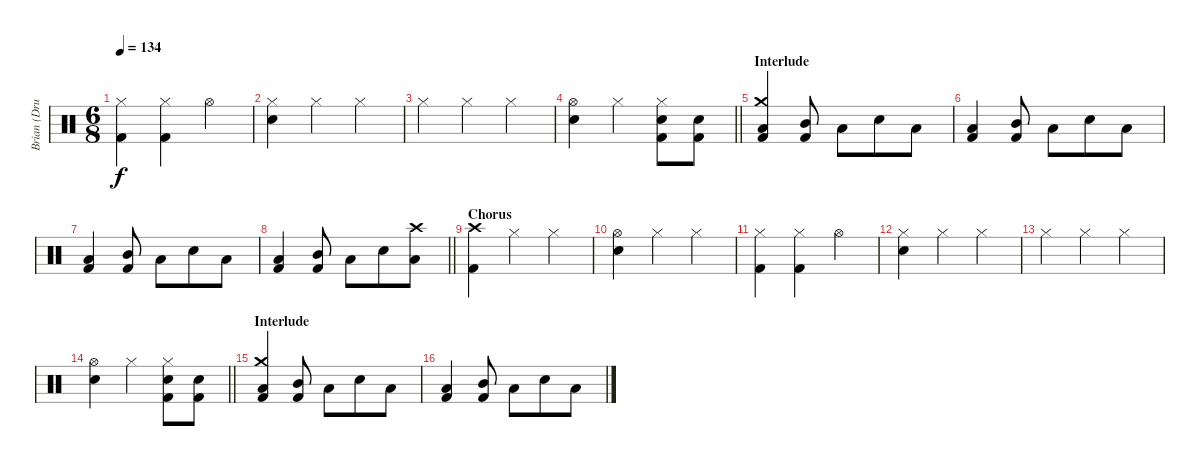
\track ("Brian (Drums)" "Brian (Dru") {instrument percussion}
\staff {score}
\articulation defaults
\ts (6 8)
\tempo 134
\clef neutral
\ks c
("Hi-Hat (closed)" "Kick (hit) 2").4{dy f} ("Hi-Hat (closed)" "Kick (hit) 2").4 "Hi-Hat (open)".4 |
("Hi-Hat (closed)" "Electric Snare (hit)").4 "Hi-Hat (closed)".4 "Hi-Hat (closed)".4 |
"Hi-Hat (closed)".4 "Hi-Hat (closed)".4 "Hi-Hat (closed)".4 |
\barLineRight lightlight
("Hi-Hat (open)" "Electric Snare (hit)").4 "Hi-Hat (closed)".4 ("Hi-Hat (closed)" "Electric Snare (hit)" "Kick (hit) 2").8 ("Electric Snare (hit)" "Kick (hit) 2").8 |
\section ("" "Interlude")
("Crash medium (hit)" "Low Tom (hit)" "Kick (hit) 2").4 ("Mid Tom (hit)" "Kick (hit) 2").8 "Low Tom (hit)".8 "Electric Snare (hit)".8 "Low Tom (hit)".8 |
("Low Tom (hit)" "Kick (hit) 2").4 ("Mid Tom (hit)" "Kick (hit) 2").8 "Low Tom (hit)".8 "Electric Snare (hit)".8 "Low Tom (hit)".8 |
("Low Tom (hit)" "Kick (hit) 2").4 ("Mid Tom (hit)" "Kick (hit) 2").8 "Low Tom (hit)".8 "Electric Snare (hit)".8 "Low Tom (hit)".8 |
\barLineRight lightlight
("Low Tom (hit)" "Kick (hit) 2").4 ("Mid Tom (hit)" "Kick (hit) 2").8 "Low Tom (hit)".8 "Electric Snare (hit)".8 ("Crash high (hit)" "Low Tom (hit)").8 |
\section ("" "Chorus")
("Crash high (hit)" "Kick (hit) 2").4 "Hi-Hat (closed)".4 "Hi-Hat (closed)".4 |
("Hi-Hat (open)" "Electric Snare (hit)").4 "Hi-Hat (closed)".4 "Hi-Hat (closed)".4 |
("Hi-Hat (closed)" "Kick (hit) 2").4 ("Hi-Hat (closed)" "Kick (hit) 2").4 "Hi-Hat (open)".4 |
("Hi-Hat (closed)" "Electric Snare (hit)").4 "Hi-Hat (closed)".4 "Hi-Hat (closed)".4 |
"Hi-Hat (closed)".4 "Hi-Hat (closed)".4 "Hi-Hat (closed)".4 |
\barLineRight lightlight
("Hi-Hat (open)" "Electric Snare (hit)").4 "Hi-Hat (closed)".4 ("Hi-Hat (closed)" "Electric Snare (hit)" "Kick (hit) 2").8 ("Electric Snare (hit)" "Kick (hit) 2").8 |
\section ("" "Interlude")
("Crash medium (hit)" "Low Tom (hit)" "Kick (hit) 2").4 ("Mid Tom (hit)" "Kick (hit) 2").8 "Low Tom (hit)".8 "Electric Snare (hit)".8 "Low Tom (hit)".8 |
("Low Tom (hit)" "Kick (hit) 2").4 ("Mid Tom (hit)" "Kick (hit) 2").8 "Low Tom (hit)".8 "Electric Snare (hit)".8 "Low Tom (hit)".8
